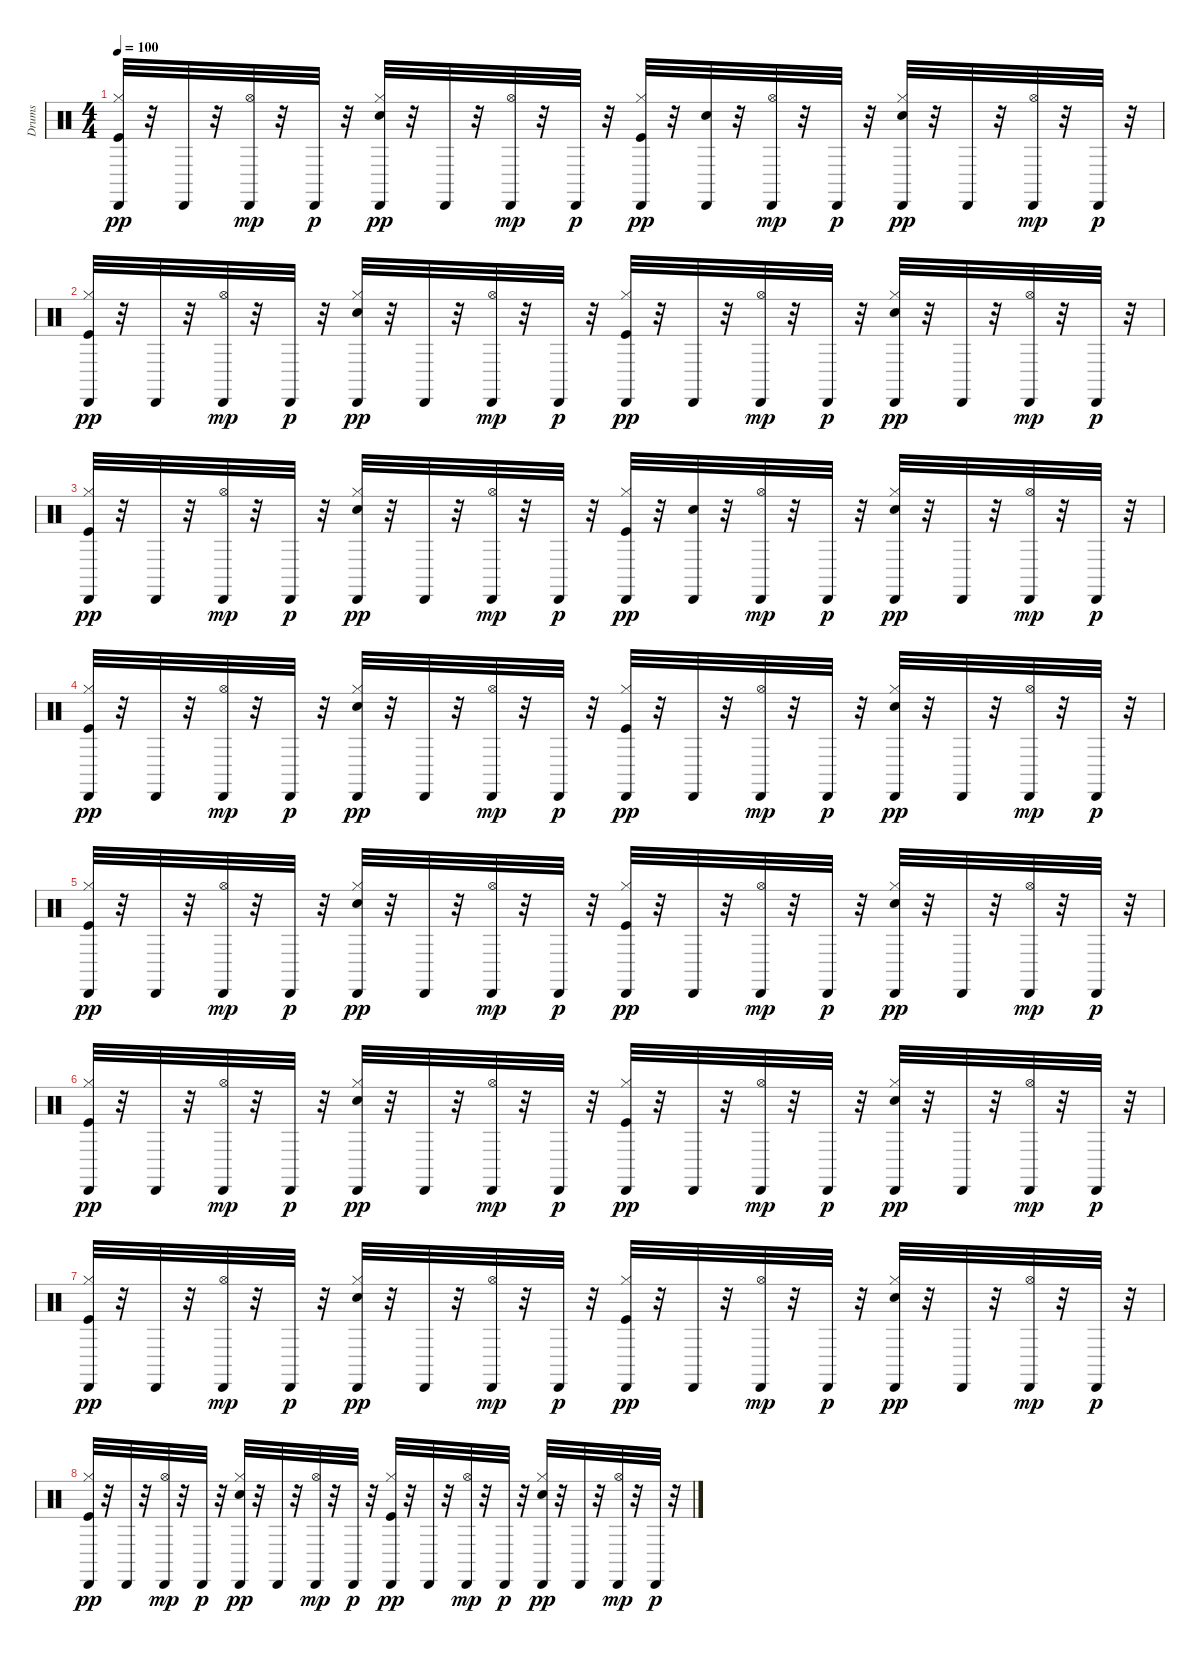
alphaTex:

\track ("Drums" "Drums") {instrument percussion}
\staff {score}
\articulation defaults
\ts (4 4)
\tempo 100
\clef neutral
\ks c
("Kick (hit)" "Hi-Hat (closed)" "Cabasa (hit)").32{dy pp} r.32 "Cabasa (hit)".32 r.32 ("Hi-Hat (open)" "Cabasa (hit)").32{dy mp} r.32 "Cabasa (hit)".32{dy p} r.32 ("Electric Snare (hit)" "Hi-Hat (closed)" "Cabasa (hit)").32{dy pp} r.32 "Cabasa (hit)".32 r.32 ("Hi-Hat (open)" "Cabasa (hit)").32{dy mp} r.32 "Cabasa (hit)".32{dy p} r.32 ("Kick (hit)" "Hi-Hat (closed)" "Cabasa (hit)").32{dy pp} r.32 ("Electric Snare (hit)" "Cabasa (hit)").32 r.32 ("Hi-Hat (open)" "Cabasa (hit)").32{dy mp} r.32 "Cabasa (hit)".32{dy p} r.32 ("Electric Snare (hit)" "Hi-Hat (closed)" "Cabasa (hit)").32{dy pp} r.32 "Cabasa (hit)".32 r.32 ("Hi-Hat (open)" "Cabasa (hit)").32{dy mp} r.32 "Cabasa (hit)".32{dy p} r.32 |
("Kick (hit)" "Hi-Hat (closed)" "Cabasa (hit)").32{dy pp} r.32 "Cabasa (hit)".32 r.32 ("Hi-Hat (open)" "Cabasa (hit)").32{dy mp} r.32 "Cabasa (hit)".32{dy p} r.32 ("Electric Snare (hit)" "Hi-Hat (closed)" "Cabasa (hit)").32{dy pp} r.32 "Cabasa (hit)".32 r.32 ("Hi-Hat (open)" "Cabasa (hit)").32{dy mp} r.32 "Cabasa (hit)".32{dy p} r.32 ("Kick (hit)" "Hi-Hat (closed)" "Cabasa (hit)").32{dy pp} r.32 "Cabasa (hit)".32 r.32 ("Hi-Hat (open)" "Cabasa (hit)").32{dy mp} r.32 "Cabasa (hit)".32{dy p} r.32 ("Electric Snare (hit)" "Hi-Hat (closed)" "Cabasa (hit)").32{dy pp} r.32 "Cabasa (hit)".32 r.32 ("Hi-Hat (open)" "Cabasa (hit)").32{dy mp} r.32 "Cabasa (hit)".32{dy p} r.32 |
("Kick (hit)" "Hi-Hat (closed)" "Cabasa (hit)").32{dy pp} r.32 "Cabasa (hit)".32 r.32 ("Hi-Hat (open)" "Cabasa (hit)").32{dy mp} r.32 "Cabasa (hit)".32{dy p} r.32 ("Electric Snare (hit)" "Hi-Hat (closed)" "Cabasa (hit)").32{dy pp} r.32 "Cabasa (hit)".32 r.32 ("Hi-Hat (open)" "Cabasa (hit)").32{dy mp} r.32 "Cabasa (hit)".32{dy p} r.32 ("Kick (hit)" "Hi-Hat (closed)" "Cabasa (hit)").32{dy pp} r.32 ("Electric Snare (hit)" "Cabasa (hit)").32 r.32 ("Hi-Hat (open)" "Cabasa (hit)").32{dy mp} r.32 "Cabasa (hit)".32{dy p} r.32 ("Electric Snare (hit)" "Hi-Hat (closed)" "Cabasa (hit)").32{dy pp} r.32 "Cabasa (hit)".32 r.32 ("Hi-Hat (open)" "Cabasa (hit)").32{dy mp} r.32 "Cabasa (hit)".32{dy p} r.32 |
("Kick (hit)" "Hi-Hat (closed)" "Cabasa (hit)").32{dy pp} r.32 "Cabasa (hit)".32 r.32 ("Hi-Hat (open)" "Cabasa (hit)").32{dy mp} r.32 "Cabasa (hit)".32{dy p} r.32 ("Electric Snare (hit)" "Hi-Hat (closed)" "Cabasa (hit)").32{dy pp} r.32 "Cabasa (hit)".32 r.32 ("Hi-Hat (open)" "Cabasa (hit)").32{dy mp} r.32 "Cabasa (hit)".32{dy p} r.32 ("Kick (hit)" "Hi-Hat (closed)" "Cabasa (hit)").32{dy pp} r.32 "Cabasa (hit)".32 r.32 ("Hi-Hat (open)" "Cabasa (hit)").32{dy mp} r.32 "Cabasa (hit)".32{dy p} r.32 ("Electric Snare (hit)" "Hi-Hat (closed)" "Cabasa (hit)").32{dy pp} r.32 "Cabasa (hit)".32 r.32 ("Hi-Hat (open)" "Cabasa (hit)").32{dy mp} r.32 "Cabasa (hit)".32{dy p} r.32 |
("Kick (hit)" "Hi-Hat (closed)" "Cabasa (hit)").32{dy pp} r.32 "Cabasa (hit)".32 r.32 ("Hi-Hat (open)" "Cabasa (hit)").32{dy mp} r.32 "Cabasa (hit)".32{dy p} r.32 ("Electric Snare (hit)" "Hi-Hat (closed)" "Cabasa (hit)").32{dy pp} r.32 "Cabasa (hit)".32 r.32 ("Hi-Hat (open)" "Cabasa (hit)").32{dy mp} r.32 "Cabasa (hit)".32{dy p} r.32 ("Kick (hit)" "Hi-Hat (closed)" "Cabasa (hit)").32{dy pp} r.32 "Cabasa (hit)".32 r.32 ("Hi-Hat (open)" "Cabasa (hit)").32{dy mp} r.32 "Cabasa (hit)".32{dy p} r.32 ("Electric Snare (hit)" "Hi-Hat (closed)" "Cabasa (hit)").32{dy pp} r.32 "Cabasa (hit)".32 r.32 ("Hi-Hat (open)" "Cabasa (hit)").32{dy mp} r.32 "Cabasa (hit)".32{dy p} r.32 |
("Kick (hit)" "Hi-Hat (closed)" "Cabasa (hit)").32{dy pp} r.32 "Cabasa (hit)".32 r.32 ("Hi-Hat (open)" "Cabasa (hit)").32{dy mp} r.32 "Cabasa (hit)".32{dy p} r.32 ("Electric Snare (hit)" "Hi-Hat (closed)" "Cabasa (hit)").32{dy pp} r.32 "Cabasa (hit)".32 r.32 ("Hi-Hat (open)" "Cabasa (hit)").32{dy mp} r.32 "Cabasa (hit)".32{dy p} r.32 ("Kick (hit)" "Hi-Hat (closed)" "Cabasa (hit)").32{dy pp} r.32 "Cabasa (hit)".32 r.32 ("Hi-Hat (open)" "Cabasa (hit)").32{dy mp} r.32 "Cabasa (hit)".32{dy p} r.32 ("Electric Snare (hit)" "Hi-Hat (closed)" "Cabasa (hit)").32{dy pp} r.32 "Cabasa (hit)".32 r.32 ("Hi-Hat (open)" "Cabasa (hit)").32{dy mp} r.32 "Cabasa (hit)".32{dy p} r.32 |
("Kick (hit)" "Hi-Hat (closed)" "Cabasa (hit)").32{dy pp} r.32 "Cabasa (hit)".32 r.32 ("Hi-Hat (open)" "Cabasa (hit)").32{dy mp} r.32 "Cabasa (hit)".32{dy p} r.32 ("Electric Snare (hit)" "Hi-Hat (closed)" "Cabasa (hit)").32{dy pp} r.32 "Cabasa (hit)".32 r.32 ("Hi-Hat (open)" "Cabasa (hit)").32{dy mp} r.32 "Cabasa (hit)".32{dy p} r.32 ("Kick (hit)" "Hi-Hat (closed)" "Cabasa (hit)").32{dy pp} r.32 "Cabasa (hit)".32 r.32 ("Hi-Hat (open)" "Cabasa (hit)").32{dy mp} r.32 "Cabasa (hit)".32{dy p} r.32 ("Electric Snare (hit)" "Hi-Hat (closed)" "Cabasa (hit)").32{dy pp} r.32 "Cabasa (hit)".32 r.32 ("Hi-Hat (open)" "Cabasa (hit)").32{dy mp} r.32 "Cabasa (hit)".32{dy p} r.32 |
("Kick (hit)" "Hi-Hat (closed)" "Cabasa (hit)").32{dy pp} r.32 "Cabasa (hit)".32 r.32 ("Hi-Hat (open)" "Cabasa (hit)").32{dy mp} r.32 "Cabasa (hit)".32{dy p} r.32 ("Electric Snare (hit)" "Hi-Hat (closed)" "Cabasa (hit)").32{dy pp} r.32 "Cabasa (hit)".32 r.32 ("Hi-Hat (open)" "Cabasa (hit)").32{dy mp} r.32 "Cabasa (hit)".32{dy p} r.32 ("Kick (hit)" "Hi-Hat (closed)" "Cabasa (hit)").32{dy pp} r.32 "Cabasa (hit)".32 r.32 ("Hi-Hat (open)" "Cabasa (hit)").32{dy mp} r.32 "Cabasa (hit)".32{dy p} r.32 ("Electric Snare (hit)" "Hi-Hat (closed)" "Cabasa (hit)").32{dy pp} r.32 "Cabasa (hit)".32 r.32 ("Hi-Hat (open)" "Cabasa (hit)").32{dy mp} r.32 "Cabasa (hit)".32{dy p} r.32
